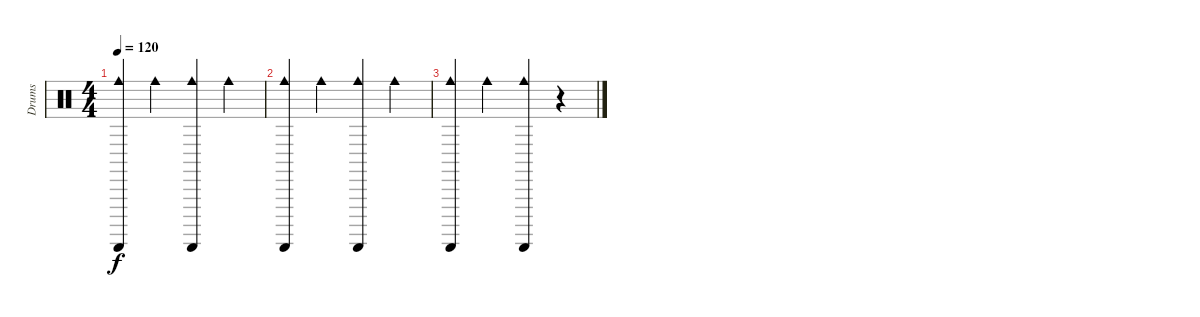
\track ("Drums" "Drums") {instrument percussion}
\staff {score}
\articulation defaults
\ts (4 4)
\tempo 120
\clef neutral
\ks c
("Cowbell medium (hit)" "Guiro (scrap-return)").4{dy f} "Cowbell medium (hit)".4 ("Cowbell medium (hit)" "Guiro (scrap-return)").4 "Cowbell medium (hit)".4 |
("Cowbell medium (hit)" "Guiro (scrap-return)").4 "Cowbell medium (hit)".4 ("Cowbell medium (hit)" "Guiro (scrap-return)").4 "Cowbell medium (hit)".4 |
("Cowbell medium (hit)" "Guiro (scrap-return)").4 "Cowbell medium (hit)".4 ("Cowbell medium (hit)" "Guiro (scrap-return)").4 r.4
